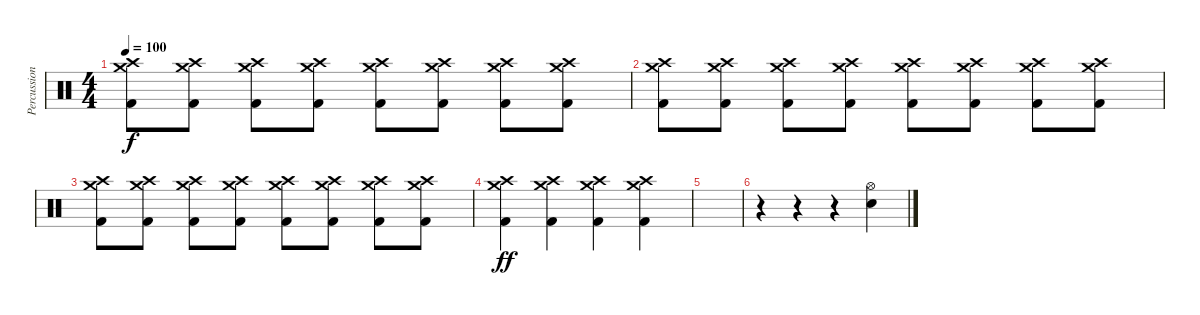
\track ("Percussion" "Percussion") {instrument percussion}
\staff {score}
\articulation defaults
\ts (4 4)
\tempo 100
\clef neutral
\ks c
("Crash medium (hit)" "Crash high (hit)" "Kick (hit) 2").8{dy f} ("Crash medium (hit)" "Crash high (hit)" "Kick (hit) 2").8 ("Crash medium (hit)" "Crash high (hit)" "Kick (hit) 2").8 ("Crash medium (hit)" "Crash high (hit)" "Kick (hit) 2").8 ("Crash medium (hit)" "Crash high (hit)" "Kick (hit) 2").8 ("Crash medium (hit)" "Crash high (hit)" "Kick (hit) 2").8 ("Crash medium (hit)" "Crash high (hit)" "Kick (hit) 2").8 ("Crash medium (hit)" "Crash high (hit)" "Kick (hit) 2").8 |
("Crash medium (hit)" "Crash high (hit)" "Kick (hit) 2").8 ("Crash medium (hit)" "Crash high (hit)" "Kick (hit) 2").8 ("Crash medium (hit)" "Crash high (hit)" "Kick (hit) 2").8 ("Crash medium (hit)" "Crash high (hit)" "Kick (hit) 2").8 ("Crash medium (hit)" "Crash high (hit)" "Kick (hit) 2").8 ("Crash medium (hit)" "Crash high (hit)" "Kick (hit) 2").8 ("Crash medium (hit)" "Crash high (hit)" "Kick (hit) 2").8 ("Crash medium (hit)" "Crash high (hit)" "Kick (hit) 2").8 |
("Crash medium (hit)" "Crash high (hit)" "Kick (hit) 2").8 ("Crash medium (hit)" "Crash high (hit)" "Kick (hit) 2").8 ("Crash medium (hit)" "Crash high (hit)" "Kick (hit) 2").8 ("Crash medium (hit)" "Crash high (hit)" "Kick (hit) 2").8 ("Crash medium (hit)" "Crash high (hit)" "Kick (hit) 2").8 ("Crash medium (hit)" "Crash high (hit)" "Kick (hit) 2").8 ("Crash medium (hit)" "Crash high (hit)" "Kick (hit) 2").8 ("Crash medium (hit)" "Crash high (hit)" "Kick (hit) 2").8 |
("Crash medium (hit)" "Crash high (hit)" "Kick (hit) 2").4{dy ff} ("Crash medium (hit)" "Crash high (hit)" "Kick (hit) 2").4 ("Crash medium (hit)" "Crash high (hit)" "Kick (hit) 2").4 ("Crash medium (hit)" "Crash high (hit)" "Kick (hit) 2").4 |
|
r.4 r.4 r.4 ("Hi-Hat (open)" "Electric Snare (hit)").4
